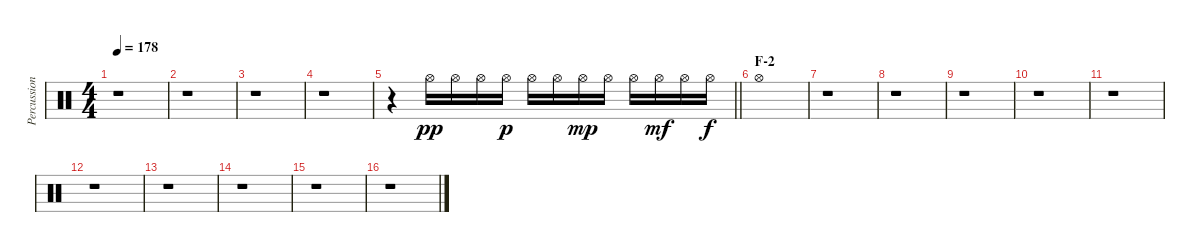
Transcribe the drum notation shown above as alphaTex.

\track ("Percussion" "Percussion") {instrument percussion}
\staff {score}
\articulation defaults
\ts (4 4)
\tempo 178
\clef neutral
\ks c
r.1{dy f} |
r.1 |
r.1 |
r.1 |
\barLineRight lightlight
r.4 "Hi-Hat (open)".16{dy pp} "Hi-Hat (open)".16 "Hi-Hat (open)".16 "Hi-Hat (open)".16{dy p} "Hi-Hat (open)".16 "Hi-Hat (open)".16 "Hi-Hat (open)".16{dy mp} "Hi-Hat (open)".16 "Hi-Hat (open)".16 "Hi-Hat (open)".16{dy mf} "Hi-Hat (open)".16 "Hi-Hat (open)".16{dy f} |
\section ("" "F-2")
"Hi-Hat (open)".1 |
r.1 |
r.1 |
r.1 |
r.1 |
r.1 |
r.1 |
r.1 |
r.1 |
r.1 |
r.1
